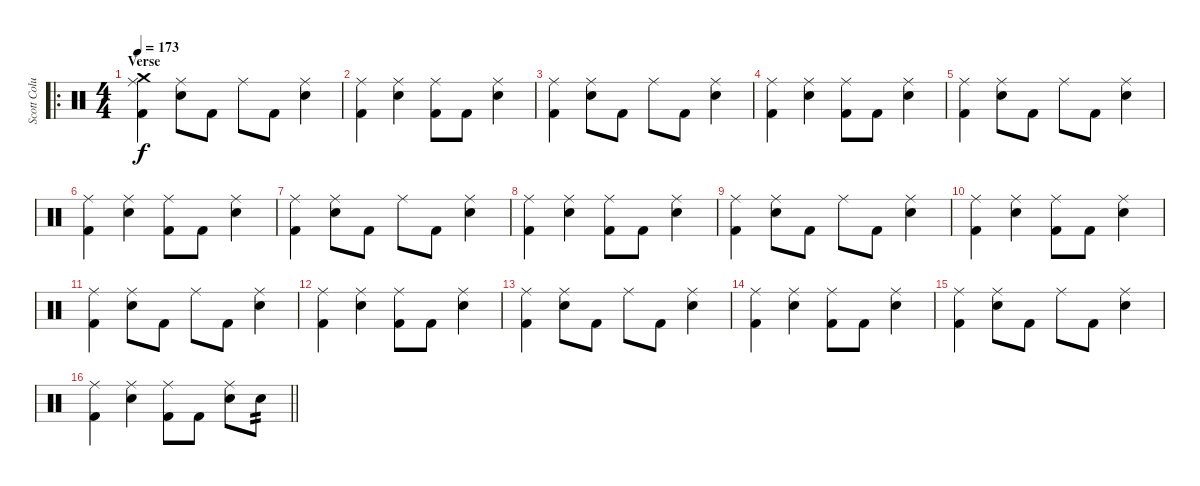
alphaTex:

\track ("Scott Columbus" "Scott Colu") {instrument percussion}
\staff {score}
\articulation defaults
\ro
\ts (4 4)
\section ("" "Verse")
\tempo 173
\clef neutral
\ks c
("Kick (hit) 2" "Ride (middle)" "Crash medium (hit)").4{dy f} ("Snare (hit) 2" "Ride (middle)").8 "Kick (hit) 2".8 "Ride (middle)".8 "Kick (hit) 2".8 ("Snare (hit) 2" "Ride (middle)").4 |
("Kick (hit) 2" "Ride (middle)").4 ("Snare (hit) 2" "Ride (middle)").4 ("Kick (hit) 2" "Ride (middle)").8 "Kick (hit) 2".8 ("Snare (hit) 2" "Ride (middle)").4 |
("Kick (hit) 2" "Ride (middle)").4 ("Snare (hit) 2" "Ride (middle)").8 "Kick (hit) 2".8 "Ride (middle)".8 "Kick (hit) 2".8 ("Snare (hit) 2" "Ride (middle)").4 |
("Kick (hit) 2" "Ride (middle)").4 ("Snare (hit) 2" "Ride (middle)").4 ("Kick (hit) 2" "Ride (middle)").8 "Kick (hit) 2".8 ("Snare (hit) 2" "Ride (middle)").4 |
("Kick (hit) 2" "Ride (middle)").4 ("Snare (hit) 2" "Ride (middle)").8 "Kick (hit) 2".8 "Ride (middle)".8 "Kick (hit) 2".8 ("Snare (hit) 2" "Ride (middle)").4 |
("Kick (hit) 2" "Ride (middle)").4 ("Snare (hit) 2" "Ride (middle)").4 ("Kick (hit) 2" "Ride (middle)").8 "Kick (hit) 2".8 ("Snare (hit) 2" "Ride (middle)").4 |
("Kick (hit) 2" "Ride (middle)").4 ("Snare (hit) 2" "Ride (middle)").8 "Kick (hit) 2".8 "Ride (middle)".8 "Kick (hit) 2".8 ("Snare (hit) 2" "Ride (middle)").4 |
("Kick (hit) 2" "Ride (middle)").4 ("Snare (hit) 2" "Ride (middle)").4 ("Kick (hit) 2" "Ride (middle)").8 "Kick (hit) 2".8 ("Snare (hit) 2" "Ride (middle)").4 |
("Kick (hit) 2" "Ride (middle)").4 ("Snare (hit) 2" "Ride (middle)").8 "Kick (hit) 2".8 "Ride (middle)".8 "Kick (hit) 2".8 ("Snare (hit) 2" "Ride (middle)").4 |
("Kick (hit) 2" "Ride (middle)").4 ("Snare (hit) 2" "Ride (middle)").4 ("Kick (hit) 2" "Ride (middle)").8 "Kick (hit) 2".8 ("Snare (hit) 2" "Ride (middle)").4 |
("Kick (hit) 2" "Ride (middle)").4 ("Snare (hit) 2" "Ride (middle)").8 "Kick (hit) 2".8 "Ride (middle)".8 "Kick (hit) 2".8 ("Snare (hit) 2" "Ride (middle)").4 |
("Kick (hit) 2" "Ride (middle)").4 ("Snare (hit) 2" "Ride (middle)").4 ("Kick (hit) 2" "Ride (middle)").8 "Kick (hit) 2".8 ("Snare (hit) 2" "Ride (middle)").4 |
("Kick (hit) 2" "Ride (middle)").4 ("Snare (hit) 2" "Ride (middle)").8 "Kick (hit) 2".8 "Ride (middle)".8 "Kick (hit) 2".8 ("Snare (hit) 2" "Ride (middle)").4 |
("Kick (hit) 2" "Ride (middle)").4 ("Snare (hit) 2" "Ride (middle)").4 ("Kick (hit) 2" "Ride (middle)").8 "Kick (hit) 2".8 ("Snare (hit) 2" "Ride (middle)").4 |
("Kick (hit) 2" "Ride (middle)").4 ("Snare (hit) 2" "Ride (middle)").8 "Kick (hit) 2".8 "Ride (middle)".8 "Kick (hit) 2".8 ("Snare (hit) 2" "Ride (middle)").4 |
\barLineRight lightlight
("Kick (hit) 2" "Ride (middle)").4 ("Snare (hit) 2" "Ride (middle)").4 ("Kick (hit) 2" "Ride (middle)").8 "Kick (hit) 2".8 ("Snare (hit) 2" "Ride (middle)").8 "Snare (hit) 2".8{tp 2}
